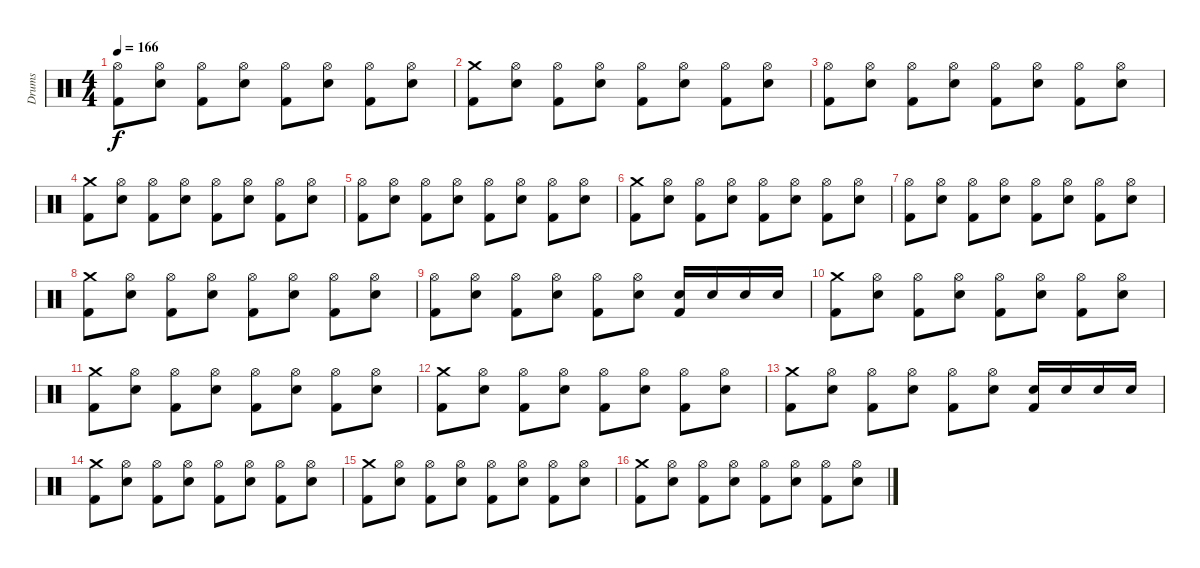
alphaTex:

\track ("Drums" "Drums") {instrument percussion}
\staff {score}
\articulation defaults
\ts (4 4)
\tempo 166
\clef neutral
\ks c
("Hi-Hat (open)" "Kick (hit) 2").8{dy f} ("Hi-Hat (open)" "Snare (hit) 2").8 ("Hi-Hat (open)" "Kick (hit) 2").8 ("Hi-Hat (open)" "Snare (hit) 2").8 ("Hi-Hat (open)" "Kick (hit) 2").8 ("Hi-Hat (open)" "Snare (hit) 2").8 ("Hi-Hat (open)" "Kick (hit) 2").8 ("Hi-Hat (open)" "Snare (hit) 2").8 |
("Crash medium (hit)" "Kick (hit) 2").8 ("Hi-Hat (open)" "Snare (hit) 2").8 ("Hi-Hat (open)" "Kick (hit) 2").8 ("Hi-Hat (open)" "Snare (hit) 2").8 ("Hi-Hat (open)" "Kick (hit) 2").8 ("Hi-Hat (open)" "Snare (hit) 2").8 ("Hi-Hat (open)" "Kick (hit) 2").8 ("Hi-Hat (open)" "Snare (hit) 2").8 |
("Hi-Hat (open)" "Kick (hit) 2").8 ("Hi-Hat (open)" "Snare (hit) 2").8 ("Hi-Hat (open)" "Kick (hit) 2").8 ("Hi-Hat (open)" "Snare (hit) 2").8 ("Hi-Hat (open)" "Kick (hit) 2").8 ("Hi-Hat (open)" "Snare (hit) 2").8 ("Hi-Hat (open)" "Kick (hit) 2").8 ("Hi-Hat (open)" "Snare (hit) 2").8 |
("Crash medium (hit)" "Kick (hit) 2").8 ("Hi-Hat (open)" "Snare (hit) 2").8 ("Hi-Hat (open)" "Kick (hit) 2").8 ("Hi-Hat (open)" "Snare (hit) 2").8 ("Hi-Hat (open)" "Kick (hit) 2").8 ("Hi-Hat (open)" "Snare (hit) 2").8 ("Hi-Hat (open)" "Kick (hit) 2").8 ("Hi-Hat (open)" "Snare (hit) 2").8 |
("Hi-Hat (open)" "Kick (hit) 2").8 ("Hi-Hat (open)" "Snare (hit) 2").8 ("Hi-Hat (open)" "Kick (hit) 2").8 ("Hi-Hat (open)" "Snare (hit) 2").8 ("Hi-Hat (open)" "Kick (hit) 2").8 ("Hi-Hat (open)" "Snare (hit) 2").8 ("Hi-Hat (open)" "Kick (hit) 2").8 ("Hi-Hat (open)" "Snare (hit) 2").8 |
("Crash medium (hit)" "Kick (hit) 2").8 ("Hi-Hat (open)" "Snare (hit) 2").8 ("Hi-Hat (open)" "Kick (hit) 2").8 ("Hi-Hat (open)" "Snare (hit) 2").8 ("Hi-Hat (open)" "Kick (hit) 2").8 ("Hi-Hat (open)" "Snare (hit) 2").8 ("Hi-Hat (open)" "Kick (hit) 2").8 ("Hi-Hat (open)" "Snare (hit) 2").8 |
("Hi-Hat (open)" "Kick (hit) 2").8 ("Hi-Hat (open)" "Snare (hit) 2").8 ("Hi-Hat (open)" "Kick (hit) 2").8 ("Hi-Hat (open)" "Snare (hit) 2").8 ("Hi-Hat (open)" "Kick (hit) 2").8 ("Hi-Hat (open)" "Snare (hit) 2").8 ("Hi-Hat (open)" "Kick (hit) 2").8 ("Hi-Hat (open)" "Snare (hit) 2").8 |
("Crash medium (hit)" "Kick (hit) 2").8 ("Hi-Hat (open)" "Snare (hit) 2").8 ("Hi-Hat (open)" "Kick (hit) 2").8 ("Hi-Hat (open)" "Snare (hit) 2").8 ("Hi-Hat (open)" "Kick (hit) 2").8 ("Hi-Hat (open)" "Snare (hit) 2").8 ("Hi-Hat (open)" "Kick (hit) 2").8 ("Hi-Hat (open)" "Snare (hit) 2").8 |
("Hi-Hat (open)" "Kick (hit) 2").8 ("Hi-Hat (open)" "Snare (hit) 2").8 ("Hi-Hat (open)" "Kick (hit) 2").8 ("Hi-Hat (open)" "Snare (hit) 2").8 ("Hi-Hat (open)" "Kick (hit) 2").8 ("Hi-Hat (open)" "Snare (hit) 2").8 ("Snare (hit) 2" "Kick (hit) 2").16 "Snare (hit) 2".16 "Snare (hit) 2".16 "Snare (hit) 2".16 |
("Crash medium (hit)" "Kick (hit) 2").8 ("Hi-Hat (open)" "Snare (hit) 2").8 ("Hi-Hat (open)" "Kick (hit) 2").8 ("Hi-Hat (open)" "Snare (hit) 2").8 ("Hi-Hat (open)" "Kick (hit) 2").8 ("Hi-Hat (open)" "Snare (hit) 2").8 ("Hi-Hat (open)" "Kick (hit) 2").8 ("Hi-Hat (open)" "Snare (hit) 2").8 |
("Crash medium (hit)" "Kick (hit) 2").8 ("Hi-Hat (open)" "Snare (hit) 2").8 ("Hi-Hat (open)" "Kick (hit) 2").8 ("Hi-Hat (open)" "Snare (hit) 2").8 ("Hi-Hat (open)" "Kick (hit) 2").8 ("Hi-Hat (open)" "Snare (hit) 2").8 ("Hi-Hat (open)" "Kick (hit) 2").8 ("Hi-Hat (open)" "Snare (hit) 2").8 |
("Crash medium (hit)" "Kick (hit) 2").8 ("Hi-Hat (open)" "Snare (hit) 2").8 ("Hi-Hat (open)" "Kick (hit) 2").8 ("Hi-Hat (open)" "Snare (hit) 2").8 ("Hi-Hat (open)" "Kick (hit) 2").8 ("Hi-Hat (open)" "Snare (hit) 2").8 ("Hi-Hat (open)" "Kick (hit) 2").8 ("Hi-Hat (open)" "Snare (hit) 2").8 |
("Crash medium (hit)" "Kick (hit) 2").8 ("Hi-Hat (open)" "Snare (hit) 2").8 ("Hi-Hat (open)" "Kick (hit) 2").8 ("Hi-Hat (open)" "Snare (hit) 2").8 ("Hi-Hat (open)" "Kick (hit) 2").8 ("Hi-Hat (open)" "Snare (hit) 2").8 ("Snare (hit) 2" "Kick (hit) 2").16 "Snare (hit) 2".16 "Snare (hit) 2".16 "Snare (hit) 2".16 |
("Crash medium (hit)" "Kick (hit) 2").8 ("Hi-Hat (open)" "Snare (hit) 2").8 ("Hi-Hat (open)" "Kick (hit) 2").8 ("Hi-Hat (open)" "Snare (hit) 2").8 ("Hi-Hat (open)" "Kick (hit) 2").8 ("Hi-Hat (open)" "Snare (hit) 2").8 ("Hi-Hat (open)" "Kick (hit) 2").8 ("Hi-Hat (open)" "Snare (hit) 2").8 |
("Crash medium (hit)" "Kick (hit) 2").8 ("Hi-Hat (open)" "Snare (hit) 2").8 ("Hi-Hat (open)" "Kick (hit) 2").8 ("Hi-Hat (open)" "Snare (hit) 2").8 ("Hi-Hat (open)" "Kick (hit) 2").8 ("Hi-Hat (open)" "Snare (hit) 2").8 ("Hi-Hat (open)" "Kick (hit) 2").8 ("Hi-Hat (open)" "Snare (hit) 2").8 |
("Crash medium (hit)" "Kick (hit) 2").8 ("Hi-Hat (open)" "Snare (hit) 2").8 ("Hi-Hat (open)" "Kick (hit) 2").8 ("Hi-Hat (open)" "Snare (hit) 2").8 ("Hi-Hat (open)" "Kick (hit) 2").8 ("Hi-Hat (open)" "Snare (hit) 2").8 ("Hi-Hat (open)" "Kick (hit) 2").8 ("Hi-Hat (open)" "Snare (hit) 2").8
